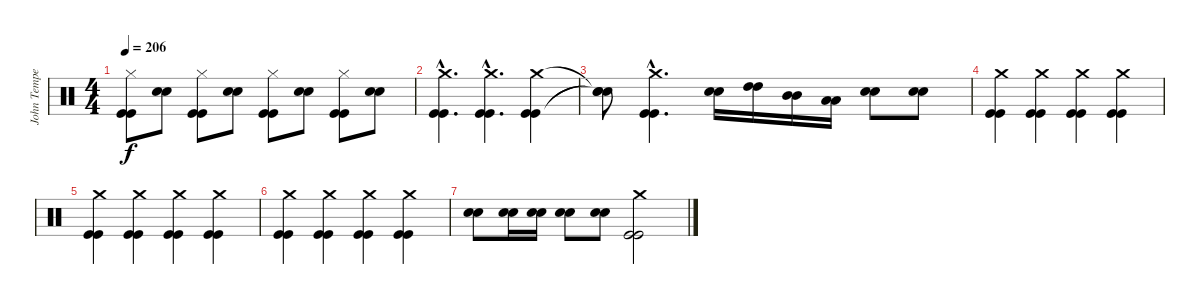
\track ("John Tempesta" "John Tempe") {instrument percussion}
\staff {score}
\articulation defaults
\ts (4 4)
\tempo 206
\clef neutral
\ks c
("Hi-Hat (closed)" "Kick (hit)" "Kick (hit)").8{dy f} ("Snare (hit) 2" "Snare (hit) 2").8 ("Hi-Hat (closed)" "Kick (hit)" "Kick (hit)").8 ("Snare (hit) 2" "Snare (hit) 2").8 ("Hi-Hat (closed)" "Kick (hit)" "Kick (hit)").8 ("Snare (hit) 2" "Snare (hit) 2").8 ("Hi-Hat (closed)" "Kick (hit)" "Kick (hit)").8 ("Snare (hit) 2" "Snare (hit) 2").8 |
("Crash medium (hit)"{hac} "Kick (hit)"{hac} "Kick (hit)"{hac}).4{d} ("Crash medium (hit)"{hac} "Kick (hit)"{hac} "Kick (hit)"{hac}).4{d} ("Crash medium (hit)" "Kick (hit)" "Kick (hit)").4 |
("Snare (hit)"{t} "Snare (hit)"{t} "Snare (hit)"{t}).8 ("Crash medium (hit)"{hac} "Kick (hit)"{hac} "Kick (hit)"{hac}).4{d} ("Snare (hit) 2" "Snare (hit) 2").16 ("High Tom (hit)" "High Tom (hit)").16 ("Mid Tom (hit)" "Mid Tom (hit)").16 ("Low Tom (hit)" "Low Tom (hit)").16 ("Snare (hit) 2" "Snare (hit) 2").8 ("Snare (hit) 2" "Snare (hit) 2").8 |
("Crash medium (hit)" "Kick (hit)" "Kick (hit)").4 ("Crash medium (hit)" "Kick (hit)" "Kick (hit)").4 ("Crash medium (hit)" "Kick (hit)" "Kick (hit)").4 ("Crash medium (hit)" "Kick (hit)" "Kick (hit)").4 |
("Crash medium (hit)" "Kick (hit)" "Kick (hit)").4 ("Crash medium (hit)" "Kick (hit)" "Kick (hit)").4 ("Crash medium (hit)" "Kick (hit)" "Kick (hit)").4 ("Crash medium (hit)" "Kick (hit)" "Kick (hit)").4 |
("Crash medium (hit)" "Kick (hit)" "Kick (hit)").4 ("Crash medium (hit)" "Kick (hit)" "Kick (hit)").4 ("Crash medium (hit)" "Kick (hit)" "Kick (hit)").4 ("Crash medium (hit)" "Kick (hit)" "Kick (hit)").4 |
("Snare (hit) 2" "Snare (hit) 2").8 ("Snare (hit) 2" "Snare (hit) 2").16 ("Snare (hit) 2" "Snare (hit) 2").16 ("Snare (hit) 2" "Snare (hit) 2").8 ("Snare (hit) 2" "Snare (hit) 2").8 ("Crash medium (hit)" "Kick (hit)" "Kick (hit)").2
